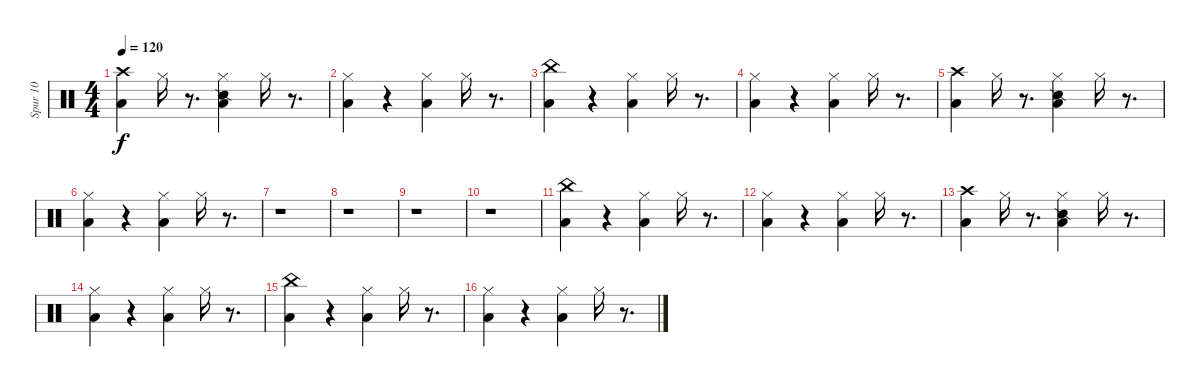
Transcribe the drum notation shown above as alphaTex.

\track ("Spur 10" "Spur 10") {instrument percussion}
\staff {score}
\articulation defaults
\ts (4 4)
\tempo 120
\clef neutral
\ks c
("Low Floor Tom (hit)" "Crash high (hit)").4{dy f} "Hi-Hat (closed)".16 r.8{d} ("Snare (side stick) 2" "Hi-Hat (closed)" "Low Tom (hit)").4 "Hi-Hat (closed)".16 r.8{d} |
("Hi-Hat (closed)" "Low Floor Tom (hit)").4 r.4 ("Hi-Hat (closed)" "Low Tom (hit)").4 "Hi-Hat (closed)".16 r.8{d} |
("Low Floor Tom (hit)" "China (hit)").4 r.4 ("Hi-Hat (closed)" "Low Tom (hit)").4 "Hi-Hat (closed)".16 r.8{d} |
("Hi-Hat (closed)" "Low Floor Tom (hit)").4 r.4 ("Hi-Hat (closed)" "Low Tom (hit)").4 "Hi-Hat (closed)".16 r.8{d} |
("Low Floor Tom (hit)" "Crash high (hit)").4 "Hi-Hat (closed)".16 r.8{d} ("Snare (side stick) 2" "Hi-Hat (closed)" "Low Tom (hit)").4 "Hi-Hat (closed)".16 r.8{d} |
("Hi-Hat (closed)" "Low Floor Tom (hit)").4 r.4 ("Hi-Hat (closed)" "Low Tom (hit)").4 "Hi-Hat (closed)".16 r.8{d} |
r.1 |
r.1 |
r.1 |
r.1 |
("Low Floor Tom (hit)" "China (hit)").4 r.4 ("Hi-Hat (closed)" "Low Tom (hit)").4 "Hi-Hat (closed)".16 r.8{d} |
("Hi-Hat (closed)" "Low Floor Tom (hit)").4 r.4 ("Hi-Hat (closed)" "Low Tom (hit)").4 "Hi-Hat (closed)".16 r.8{d} |
("Low Floor Tom (hit)" "Crash high (hit)").4 "Hi-Hat (closed)".16 r.8{d} ("Snare (side stick) 2" "Hi-Hat (closed)" "Low Tom (hit)").4 "Hi-Hat (closed)".16 r.8{d} |
("Hi-Hat (closed)" "Low Floor Tom (hit)").4 r.4 ("Hi-Hat (closed)" "Low Tom (hit)").4 "Hi-Hat (closed)".16 r.8{d} |
("Low Floor Tom (hit)" "China (hit)").4 r.4 ("Hi-Hat (closed)" "Low Tom (hit)").4 "Hi-Hat (closed)".16 r.8{d} |
("Hi-Hat (closed)" "Low Floor Tom (hit)").4 r.4 ("Hi-Hat (closed)" "Low Tom (hit)").4 "Hi-Hat (closed)".16 r.8{d}
